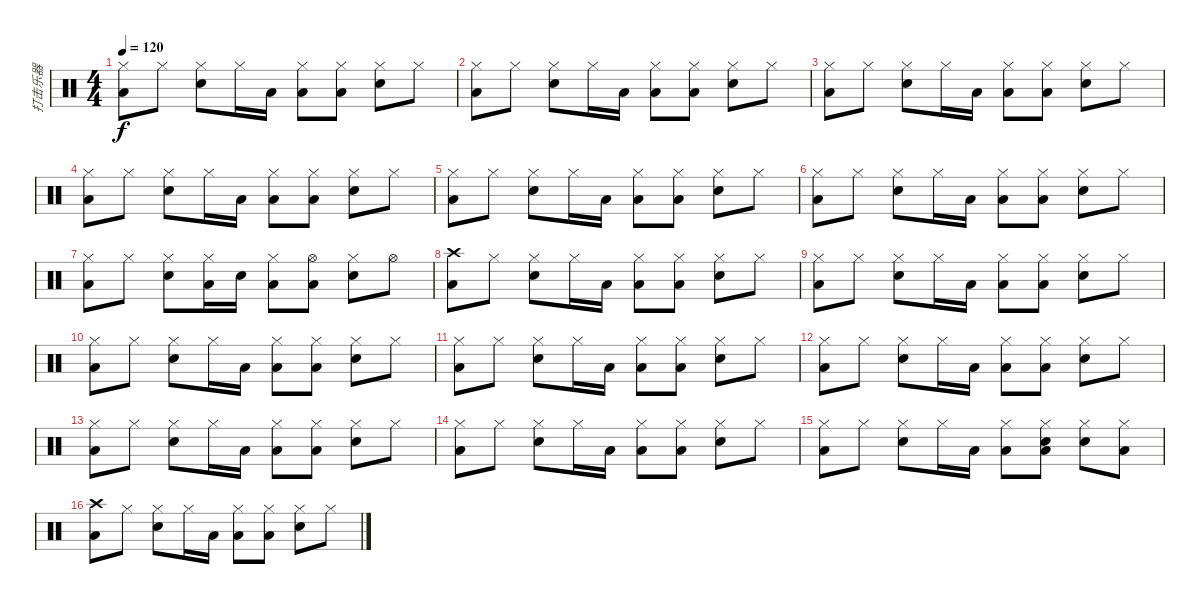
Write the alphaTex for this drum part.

\track ("打击乐器" "打击乐器") {instrument percussion}
\staff {score}
\articulation defaults
\ts (4 4)
\tempo 120
\clef neutral
\ks c
("Hi-Hat (closed)" "Low Floor Tom (hit)").8{dy f} "Hi-Hat (closed)".8 ("Hi-Hat (closed)" "Electric Snare (hit)").8 "Hi-Hat (closed)".16 "Low Floor Tom (hit)".16 ("Hi-Hat (closed)" "Low Floor Tom (hit)").8 ("Hi-Hat (closed)" "Low Floor Tom (hit)").8 ("Hi-Hat (closed)" "Electric Snare (hit)").8 "Hi-Hat (closed)".8 |
("Hi-Hat (closed)" "Low Floor Tom (hit)").8 "Hi-Hat (closed)".8 ("Hi-Hat (closed)" "Electric Snare (hit)").8 "Hi-Hat (closed)".16 "Low Floor Tom (hit)".16 ("Hi-Hat (closed)" "Low Floor Tom (hit)").8 ("Hi-Hat (closed)" "Low Floor Tom (hit)").8 ("Hi-Hat (closed)" "Electric Snare (hit)").8 "Hi-Hat (closed)".8 |
("Hi-Hat (closed)" "Low Floor Tom (hit)").8 "Hi-Hat (closed)".8 ("Hi-Hat (closed)" "Electric Snare (hit)").8 "Hi-Hat (closed)".16 "Low Floor Tom (hit)".16 ("Hi-Hat (closed)" "Low Floor Tom (hit)").8 ("Hi-Hat (closed)" "Low Floor Tom (hit)").8 ("Hi-Hat (closed)" "Electric Snare (hit)").8 "Hi-Hat (closed)".8 |
("Hi-Hat (closed)" "Low Floor Tom (hit)").8 "Hi-Hat (closed)".8 ("Hi-Hat (closed)" "Electric Snare (hit)").8 "Hi-Hat (closed)".16 "Low Floor Tom (hit)".16 ("Hi-Hat (closed)" "Low Floor Tom (hit)").8 ("Hi-Hat (closed)" "Low Floor Tom (hit)").8 ("Hi-Hat (closed)" "Electric Snare (hit)").8 "Hi-Hat (closed)".8 |
("Hi-Hat (closed)" "Low Floor Tom (hit)").8 "Hi-Hat (closed)".8 ("Hi-Hat (closed)" "Electric Snare (hit)").8 "Hi-Hat (closed)".16 "Low Floor Tom (hit)".16 ("Hi-Hat (closed)" "Low Floor Tom (hit)").8 ("Hi-Hat (closed)" "Low Floor Tom (hit)").8 ("Hi-Hat (closed)" "Electric Snare (hit)").8 "Hi-Hat (closed)".8 |
("Hi-Hat (closed)" "Low Floor Tom (hit)").8 "Hi-Hat (closed)".8 ("Hi-Hat (closed)" "Electric Snare (hit)").8 "Hi-Hat (closed)".16 "Low Floor Tom (hit)".16 ("Hi-Hat (closed)" "Low Floor Tom (hit)").8 ("Hi-Hat (closed)" "Low Floor Tom (hit)").8 ("Hi-Hat (closed)" "Electric Snare (hit)").8 "Hi-Hat (closed)".8 |
("Hi-Hat (closed)" "Low Floor Tom (hit)").8 "Hi-Hat (closed)".8 ("Hi-Hat (closed)" "Electric Snare (hit)").8 ("Hi-Hat (closed)" "Low Floor Tom (hit)").16 "Electric Snare (hit)".16 ("Hi-Hat (closed)" "Low Floor Tom (hit)").8 ("Hi-Hat (open)" "Low Floor Tom (hit)").8 ("Hi-Hat (closed)" "Electric Snare (hit)").8 "Hi-Hat (open)".8 |
("Crash high (hit)" "Low Floor Tom (hit)").8 "Hi-Hat (closed)".8 ("Hi-Hat (closed)" "Electric Snare (hit)").8 "Hi-Hat (closed)".16 "Low Floor Tom (hit)".16 ("Hi-Hat (closed)" "Low Floor Tom (hit)").8 ("Hi-Hat (closed)" "Low Floor Tom (hit)").8 ("Hi-Hat (closed)" "Electric Snare (hit)").8 "Hi-Hat (closed)".8 |
("Hi-Hat (closed)" "Low Floor Tom (hit)").8 "Hi-Hat (closed)".8 ("Hi-Hat (closed)" "Electric Snare (hit)").8 "Hi-Hat (closed)".16 "Low Floor Tom (hit)".16 ("Hi-Hat (closed)" "Low Floor Tom (hit)").8 ("Hi-Hat (closed)" "Low Floor Tom (hit)").8 ("Hi-Hat (closed)" "Electric Snare (hit)").8 "Hi-Hat (closed)".8 |
("Hi-Hat (closed)" "Low Floor Tom (hit)").8 "Hi-Hat (closed)".8 ("Hi-Hat (closed)" "Electric Snare (hit)").8 "Hi-Hat (closed)".16 "Low Floor Tom (hit)".16 ("Hi-Hat (closed)" "Low Floor Tom (hit)").8 ("Hi-Hat (closed)" "Low Floor Tom (hit)").8 ("Hi-Hat (closed)" "Electric Snare (hit)").8 "Hi-Hat (closed)".8 |
("Hi-Hat (closed)" "Low Floor Tom (hit)").8 "Hi-Hat (closed)".8 ("Hi-Hat (closed)" "Electric Snare (hit)").8 "Hi-Hat (closed)".16 "Low Floor Tom (hit)".16 ("Hi-Hat (closed)" "Low Floor Tom (hit)").8 ("Hi-Hat (closed)" "Low Floor Tom (hit)").8 ("Hi-Hat (closed)" "Electric Snare (hit)").8 "Hi-Hat (closed)".8 |
("Hi-Hat (closed)" "Low Floor Tom (hit)").8 "Hi-Hat (closed)".8 ("Hi-Hat (closed)" "Electric Snare (hit)").8 "Hi-Hat (closed)".16 "Low Floor Tom (hit)".16 ("Hi-Hat (closed)" "Low Floor Tom (hit)").8 ("Hi-Hat (closed)" "Low Floor Tom (hit)").8 ("Hi-Hat (closed)" "Electric Snare (hit)").8 "Hi-Hat (closed)".8 |
("Hi-Hat (closed)" "Low Floor Tom (hit)").8 "Hi-Hat (closed)".8 ("Hi-Hat (closed)" "Electric Snare (hit)").8 "Hi-Hat (closed)".16 "Low Floor Tom (hit)".16 ("Hi-Hat (closed)" "Low Floor Tom (hit)").8 ("Hi-Hat (closed)" "Low Floor Tom (hit)").8 ("Hi-Hat (closed)" "Electric Snare (hit)").8 "Hi-Hat (closed)".8 |
("Hi-Hat (closed)" "Low Floor Tom (hit)").8 "Hi-Hat (closed)".8 ("Hi-Hat (closed)" "Electric Snare (hit)").8 "Hi-Hat (closed)".16 "Low Floor Tom (hit)".16 ("Hi-Hat (closed)" "Low Floor Tom (hit)").8 ("Hi-Hat (closed)" "Low Floor Tom (hit)").8 ("Hi-Hat (closed)" "Electric Snare (hit)").8 "Hi-Hat (closed)".8 |
("Hi-Hat (closed)" "Low Floor Tom (hit)").8 "Hi-Hat (closed)".8 ("Hi-Hat (closed)" "Electric Snare (hit)").8 "Hi-Hat (closed)".16 "Low Floor Tom (hit)".16 ("Hi-Hat (closed)" "Low Floor Tom (hit)").8 ("Hi-Hat (closed)" "Electric Snare (hit)" "Low Floor Tom (hit)").8 ("Hi-Hat (closed)" "Electric Snare (hit)").8 ("Hi-Hat (closed)" "Low Floor Tom (hit)").8 |
("Crash high (hit)" "Low Floor Tom (hit)").8 "Hi-Hat (closed)".8 ("Hi-Hat (closed)" "Electric Snare (hit)").8 "Hi-Hat (closed)".16 "Low Floor Tom (hit)".16 ("Hi-Hat (closed)" "Low Floor Tom (hit)").8 ("Hi-Hat (closed)" "Low Floor Tom (hit)").8 ("Hi-Hat (closed)" "Electric Snare (hit)").8 "Hi-Hat (closed)".8
